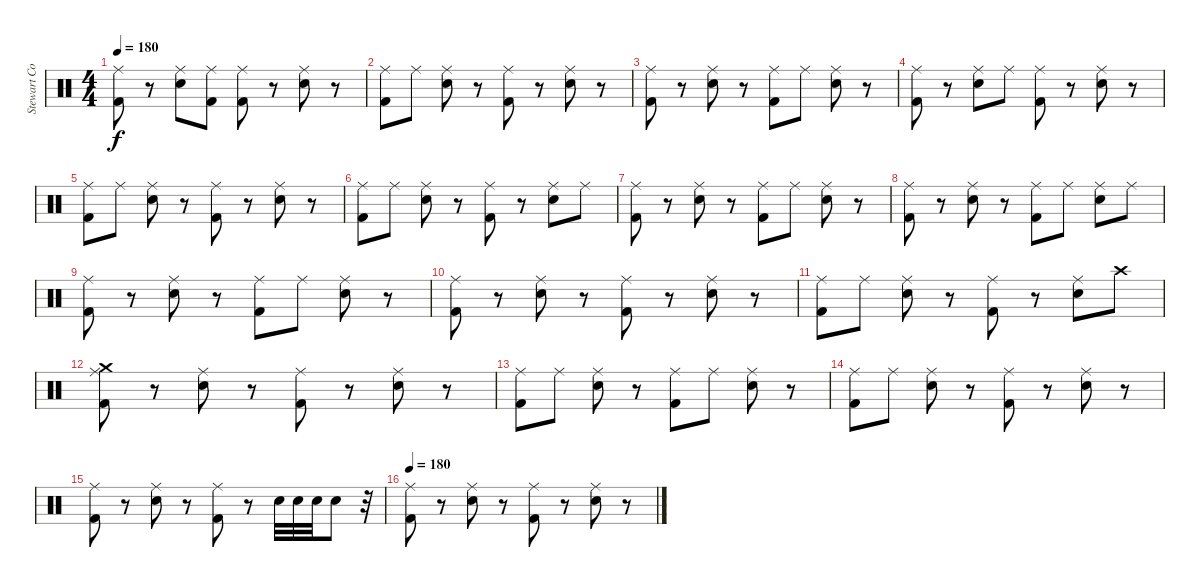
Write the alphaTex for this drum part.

\track ("Stewart Copeland" "Stewart Co") {instrument percussion}
\staff {score}
\articulation defaults
\ts (4 4)
\tempo 180
\clef neutral
\ks c
("Ride (middle)" "Kick (hit) 2").8{dy f} r.8 ("Ride (middle)" "Electric Snare (hit)").8 ("Ride (middle)" "Kick (hit) 2").8 ("Ride (middle)" "Kick (hit) 2").8 r.8 ("Ride (middle)" "Electric Snare (hit)").8 r.8 |
("Ride (middle)" "Kick (hit) 2").8 "Ride (middle)".8 ("Ride (middle)" "Electric Snare (hit)").8 r.8 ("Ride (middle)" "Kick (hit) 2").8 r.8 ("Ride (middle)" "Electric Snare (hit)").8 r.8 |
("Ride (middle)" "Kick (hit) 2").8 r.8 ("Ride (middle)" "Electric Snare (hit)").8 r.8 ("Ride (middle)" "Kick (hit) 2").8 "Ride (middle)".8 ("Ride (middle)" "Electric Snare (hit)").8 r.8 |
("Ride (middle)" "Kick (hit) 2").8 r.8 ("Ride (middle)" "Electric Snare (hit)").8 "Ride (middle)".8 ("Ride (middle)" "Kick (hit) 2").8 r.8 ("Ride (middle)" "Electric Snare (hit)").8 r.8 |
("Ride (middle)" "Kick (hit) 2").8 "Ride (middle)".8 ("Ride (middle)" "Electric Snare (hit)").8 r.8 ("Ride (middle)" "Kick (hit) 2").8 r.8 ("Ride (middle)" "Electric Snare (hit)").8 r.8 |
("Ride (middle)" "Kick (hit) 2").8 "Ride (middle)".8 ("Ride (middle)" "Electric Snare (hit)").8 r.8 ("Ride (middle)" "Kick (hit) 2").8 r.8 ("Ride (middle)" "Electric Snare (hit)").8 "Ride (middle)".8 |
("Ride (middle)" "Kick (hit) 2").8 r.8 ("Ride (middle)" "Electric Snare (hit)").8 r.8 ("Ride (middle)" "Kick (hit) 2").8 "Ride (middle)".8 ("Ride (middle)" "Electric Snare (hit)").8 r.8 |
("Ride (middle)" "Kick (hit) 2").8 r.8 ("Ride (middle)" "Electric Snare (hit)").8 r.8 ("Ride (middle)" "Kick (hit) 2").8 "Ride (middle)".8 ("Ride (middle)" "Electric Snare (hit)").8 "Ride (middle)".8 |
("Ride (middle)" "Kick (hit) 2").8 r.8 ("Ride (middle)" "Electric Snare (hit)").8 r.8 ("Ride (middle)" "Kick (hit) 2").8 "Ride (middle)".8 ("Ride (middle)" "Electric Snare (hit)").8 r.8 |
("Ride (middle)" "Kick (hit) 2").8 r.8 ("Ride (middle)" "Electric Snare (hit)").8 r.8 ("Ride (middle)" "Kick (hit) 2").8 r.8 ("Ride (middle)" "Electric Snare (hit)").8 r.8 |
("Ride (middle)" "Kick (hit) 2").8 "Ride (middle)".8 ("Ride (middle)" "Electric Snare (hit)").8 r.8 ("Ride (middle)" "Kick (hit) 2").8 r.8 ("Ride (middle)" "Electric Snare (hit)").8 "Crash high (hit)".8 |
("Crash medium (hit)" "Ride (middle)" "Kick (hit) 2").8 r.8 ("Ride (middle)" "Electric Snare (hit)").8 r.8 ("Ride (middle)" "Kick (hit) 2").8 r.8 ("Ride (middle)" "Electric Snare (hit)").8 r.8 |
("Ride (middle)" "Kick (hit) 2").8 "Ride (middle)".8 ("Ride (middle)" "Electric Snare (hit)").8 r.8 ("Ride (middle)" "Kick (hit) 2").8 "Ride (middle)".8 ("Ride (middle)" "Electric Snare (hit)").8 r.8 |
("Ride (middle)" "Kick (hit) 2").8 "Ride (middle)".8 ("Ride (middle)" "Electric Snare (hit)").8 r.8 ("Ride (middle)" "Kick (hit) 2").8 r.8 ("Ride (middle)" "Electric Snare (hit)").8 r.8 |
("Ride (middle)" "Kick (hit) 2").8 r.8 ("Ride (middle)" "Electric Snare (hit)").8 r.8 ("Ride (middle)" "Kick (hit) 2").8 r.8 "Electric Snare (hit)".32 "Electric Snare (hit)".32 "Electric Snare (hit)".32 "Electric Snare (hit)".8 r.32 |
\tempo 180
("Ride (middle)" "Kick (hit) 2").8 r.8 ("Ride (middle)" "Electric Snare (hit)").8 r.8 ("Ride (middle)" "Kick (hit) 2").8 r.8 ("Ride (middle)" "Electric Snare (hit)").8 r.8
